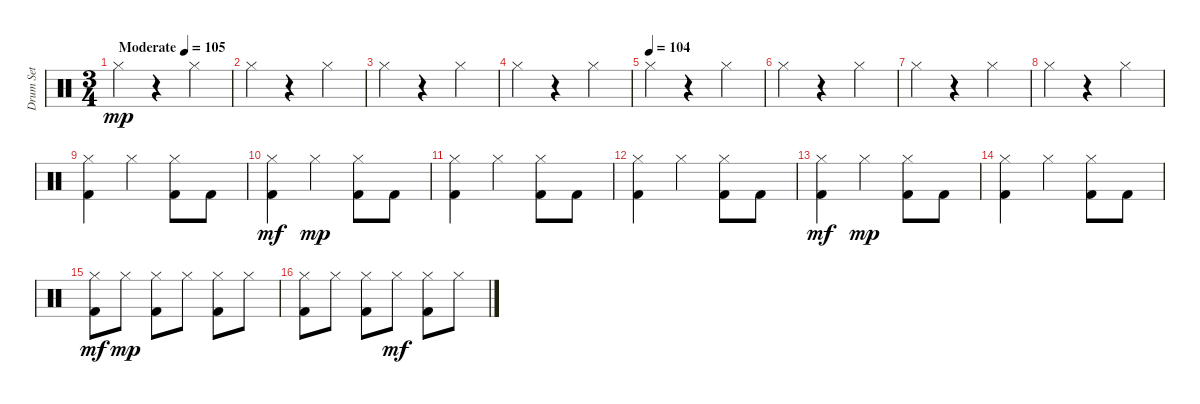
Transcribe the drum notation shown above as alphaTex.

\track ("Drum Set" "Drum Set") {instrument percussion}
\staff {score}
\articulation defaults
\ts (3 4)
\tempo (105 "Moderate")
\tempo 104
\tempo (105 "Moderate")
\clef neutral
\ks c "Hi-Hat (closed)".4{dy mp}
r.4 "Hi-Hat (closed)".4 |
"Hi-Hat (closed)".4 r.4 "Hi-Hat (closed)".4 |
"Hi-Hat (closed)".4 r.4 "Hi-Hat (closed)".4 |
"Hi-Hat (closed)".4 r.4 "Hi-Hat (closed)".4 |
\tempo (104)
"Hi-Hat (closed)".4 r.4 "Hi-Hat (closed)".4 |
"Hi-Hat (closed)".4 r.4 "Hi-Hat (closed)".4 |
"Hi-Hat (closed)".4 r.4 "Hi-Hat (closed)".4 |
"Hi-Hat (closed)".4 r.4 "Hi-Hat (closed)".4 |
("Kick (hit) 2" "Hi-Hat (closed)").4 "Hi-Hat (closed)".4 ("Hi-Hat (closed)" "Kick (hit) 2").8 "Kick (hit) 2".8 |
("Kick (hit) 2" "Hi-Hat (closed)").4{dy mf} "Hi-Hat (closed)".4{dy mp} ("Kick (hit) 2" "Hi-Hat (closed)").8 "Kick (hit) 2".8 |
("Kick (hit) 2" "Hi-Hat (closed)").4 "Hi-Hat (closed)".4 ("Hi-Hat (closed)" "Kick (hit) 2").8 "Kick (hit) 2".8 |
("Kick (hit) 2" "Hi-Hat (closed)").4 "Hi-Hat (closed)".4 ("Kick (hit) 2" "Hi-Hat (closed)").8 "Kick (hit) 2".8 |
("Kick (hit) 2" "Hi-Hat (closed)").4{dy mf} "Hi-Hat (closed)".4{dy mp} ("Hi-Hat (closed)" "Kick (hit) 2").8 "Kick (hit) 2".8 |
("Kick (hit) 2" "Hi-Hat (closed)").4 "Hi-Hat (closed)".4 ("Kick (hit) 2" "Hi-Hat (closed)").8 "Kick (hit) 2".8 |
("Kick (hit) 2" "Hi-Hat (closed)").8{dy mf} "Hi-Hat (closed)".8{dy mp} ("Kick (hit) 2" "Hi-Hat (closed)").8 "Hi-Hat (closed)".8 ("Kick (hit) 2" "Hi-Hat (closed)").8 "Hi-Hat (closed)".8 |
("Kick (hit) 2" "Hi-Hat (closed)").8 "Hi-Hat (closed)".8 ("Kick (hit) 2" "Hi-Hat (closed)").8 "Hi-Hat (closed)".8{dy mf} ("Kick (hit) 2" "Hi-Hat (closed)").8 "Hi-Hat (closed)".8
